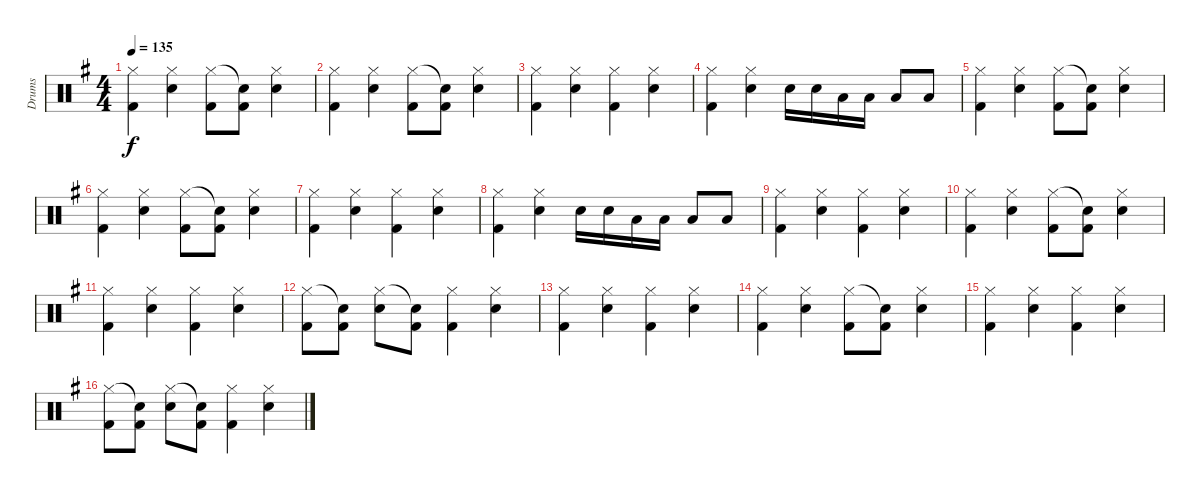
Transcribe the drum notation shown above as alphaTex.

\track ("Drums" "Drums") {instrument percussion}
\staff {score}
\articulation defaults
\ts (4 4)
\tempo 135
\clef neutral
\ks eminor
("Hi-Hat (closed)" "Kick (hit) 2").4{dy f} ("Hi-Hat (closed)" "Snare (hit) 2").4 ("Hi-Hat (closed)" "Kick (hit) 2").8 ("Snare (hit)"{t} "Kick (hit) 2").8 ("Hi-Hat (closed)" "Snare (hit) 2").4 |
("Hi-Hat (closed)" "Kick (hit) 2").4 ("Hi-Hat (closed)" "Snare (hit) 2").4 ("Hi-Hat (closed)" "Kick (hit) 2").8 ("Snare (hit)"{t} "Kick (hit) 2").8 ("Hi-Hat (closed)" "Snare (hit) 2").4 |
("Hi-Hat (closed)" "Kick (hit) 2").4 ("Hi-Hat (closed)" "Snare (hit) 2").4 ("Hi-Hat (closed)" "Kick (hit) 2").4 ("Hi-Hat (closed)" "Snare (hit) 2").4 |
("Hi-Hat (closed)" "Kick (hit) 2").4 ("Hi-Hat (closed)" "Snare (hit) 2").4 "Snare (hit) 2".16 "Snare (hit) 2".16 "Low Floor Tom (hit)".16 "Low Floor Tom (hit)".16 "Low Floor Tom (hit)".8 "Low Floor Tom (hit)".8 |
("Hi-Hat (closed)" "Kick (hit) 2").4 ("Hi-Hat (closed)" "Snare (hit) 2").4 ("Hi-Hat (closed)" "Kick (hit) 2").8 ("Snare (hit)"{t} "Kick (hit) 2").8 ("Hi-Hat (closed)" "Snare (hit) 2").4 |
("Hi-Hat (closed)" "Kick (hit) 2").4 ("Hi-Hat (closed)" "Snare (hit) 2").4 ("Hi-Hat (closed)" "Kick (hit) 2").8 ("Snare (hit)"{t} "Kick (hit) 2").8 ("Hi-Hat (closed)" "Snare (hit) 2").4 |
("Hi-Hat (closed)" "Kick (hit) 2").4 ("Hi-Hat (closed)" "Snare (hit) 2").4 ("Hi-Hat (closed)" "Kick (hit) 2").4 ("Hi-Hat (closed)" "Snare (hit) 2").4 |
("Hi-Hat (closed)" "Kick (hit) 2").4 ("Hi-Hat (closed)" "Snare (hit) 2").4 "Snare (hit) 2".16 "Snare (hit) 2".16 "Low Floor Tom (hit)".16 "Low Floor Tom (hit)".16 "Low Floor Tom (hit)".8 "Low Floor Tom (hit)".8 |
("Hi-Hat (closed)" "Kick (hit) 2").4 ("Hi-Hat (closed)" "Snare (hit) 2").4 ("Hi-Hat (closed)" "Kick (hit) 2").4 ("Hi-Hat (closed)" "Snare (hit) 2").4 |
("Hi-Hat (closed)" "Kick (hit) 2").4 ("Hi-Hat (closed)" "Snare (hit) 2").4 ("Hi-Hat (closed)" "Kick (hit) 2").8 ("Snare (hit)"{t} "Kick (hit) 2").8 ("Hi-Hat (closed)" "Snare (hit) 2").4 |
("Hi-Hat (closed)" "Kick (hit) 2").4 ("Hi-Hat (closed)" "Snare (hit) 2").4 ("Hi-Hat (closed)" "Kick (hit) 2").4 ("Hi-Hat (closed)" "Snare (hit) 2").4 |
("Hi-Hat (closed)" "Kick (hit) 2").8 ("Snare (hit)"{t} "Kick (hit) 2").8 ("Hi-Hat (closed)" "Snare (hit) 2").8 ("Snare (hit)"{t} "Kick (hit) 2").8 ("Hi-Hat (closed)" "Kick (hit) 2").4 ("Hi-Hat (closed)" "Snare (hit) 2").4 |
("Hi-Hat (closed)" "Kick (hit) 2").4 ("Hi-Hat (closed)" "Snare (hit) 2").4 ("Hi-Hat (closed)" "Kick (hit) 2").4 ("Hi-Hat (closed)" "Snare (hit) 2").4 |
("Hi-Hat (closed)" "Kick (hit) 2").4 ("Hi-Hat (closed)" "Snare (hit) 2").4 ("Hi-Hat (closed)" "Kick (hit) 2").8 ("Snare (hit)"{t} "Kick (hit) 2").8 ("Hi-Hat (closed)" "Snare (hit) 2").4 |
("Hi-Hat (closed)" "Kick (hit) 2").4 ("Hi-Hat (closed)" "Snare (hit) 2").4 ("Hi-Hat (closed)" "Kick (hit) 2").4 ("Hi-Hat (closed)" "Snare (hit) 2").4 |
("Hi-Hat (closed)" "Kick (hit) 2").8 ("Snare (hit)"{t} "Kick (hit) 2").8 ("Hi-Hat (closed)" "Snare (hit) 2").8 ("Snare (hit)"{t} "Kick (hit) 2").8 ("Hi-Hat (closed)" "Kick (hit) 2").4 ("Hi-Hat (closed)" "Snare (hit) 2").4
